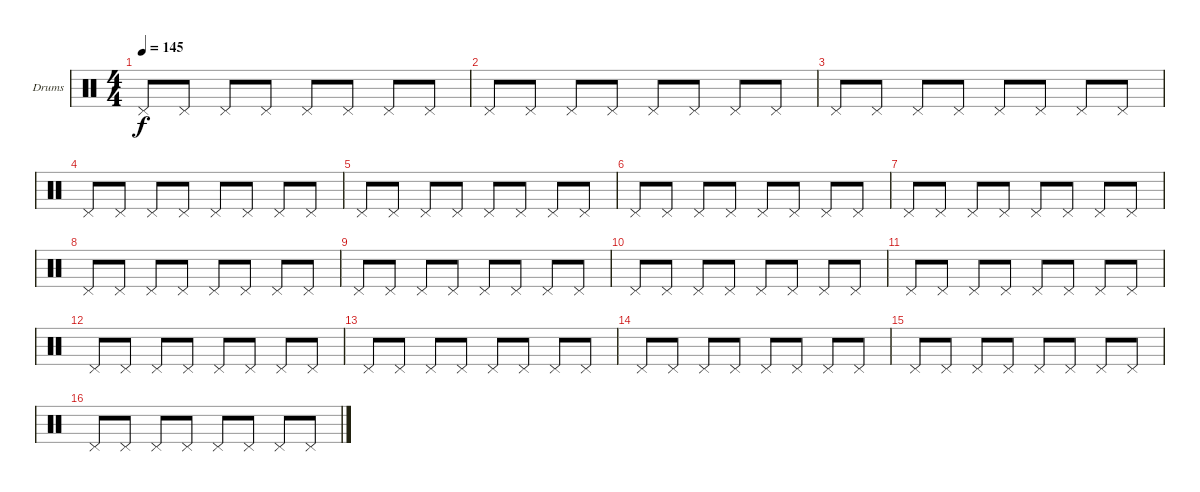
\defaultSystemsLayout 4
\bracketExtendMode groupsimilarinstruments
\firstSystemTrackNameOrientation horizontal
\otherSystemsTrackNameOrientation horizontal
\track ("Drumkit" "Drums") {instrument percussion}
\staff {score}
\articulation defaults
\ts (4 4)
\tempo 145
\clef neutral
\ks c "Pedal Hi-Hat (hit)".8{dy f} "Pedal Hi-Hat (hit)".8 "Pedal Hi-Hat (hit)".8 "Pedal Hi-Hat (hit)".8 "Pedal Hi-Hat (hit)".8 "Pedal Hi-Hat (hit)".8 "Pedal Hi-Hat (hit)".8 "Pedal Hi-Hat (hit)".8
|
"Pedal Hi-Hat (hit)".8 "Pedal Hi-Hat (hit)".8 "Pedal Hi-Hat (hit)".8 "Pedal Hi-Hat (hit)".8 "Pedal Hi-Hat (hit)".8 "Pedal Hi-Hat (hit)".8 "Pedal Hi-Hat (hit)".8 "Pedal Hi-Hat (hit)".8 |
"Pedal Hi-Hat (hit)".8 "Pedal Hi-Hat (hit)".8 "Pedal Hi-Hat (hit)".8 "Pedal Hi-Hat (hit)".8 "Pedal Hi-Hat (hit)".8 "Pedal Hi-Hat (hit)".8 "Pedal Hi-Hat (hit)".8 "Pedal Hi-Hat (hit)".8 |
"Pedal Hi-Hat (hit)".8 "Pedal Hi-Hat (hit)".8 "Pedal Hi-Hat (hit)".8 "Pedal Hi-Hat (hit)".8 "Pedal Hi-Hat (hit)".8 "Pedal Hi-Hat (hit)".8 "Pedal Hi-Hat (hit)".8 "Pedal Hi-Hat (hit)".8 |
"Pedal Hi-Hat (hit)".8 "Pedal Hi-Hat (hit)".8 "Pedal Hi-Hat (hit)".8 "Pedal Hi-Hat (hit)".8 "Pedal Hi-Hat (hit)".8 "Pedal Hi-Hat (hit)".8 "Pedal Hi-Hat (hit)".8 "Pedal Hi-Hat (hit)".8 |
"Pedal Hi-Hat (hit)".8 "Pedal Hi-Hat (hit)".8 "Pedal Hi-Hat (hit)".8 "Pedal Hi-Hat (hit)".8 "Pedal Hi-Hat (hit)".8 "Pedal Hi-Hat (hit)".8 "Pedal Hi-Hat (hit)".8 "Pedal Hi-Hat (hit)".8 |
"Pedal Hi-Hat (hit)".8 "Pedal Hi-Hat (hit)".8 "Pedal Hi-Hat (hit)".8 "Pedal Hi-Hat (hit)".8 "Pedal Hi-Hat (hit)".8 "Pedal Hi-Hat (hit)".8 "Pedal Hi-Hat (hit)".8 "Pedal Hi-Hat (hit)".8 |
"Pedal Hi-Hat (hit)".8 "Pedal Hi-Hat (hit)".8 "Pedal Hi-Hat (hit)".8 "Pedal Hi-Hat (hit)".8 "Pedal Hi-Hat (hit)".8 "Pedal Hi-Hat (hit)".8 "Pedal Hi-Hat (hit)".8 "Pedal Hi-Hat (hit)".8 |
"Pedal Hi-Hat (hit)".8 "Pedal Hi-Hat (hit)".8 "Pedal Hi-Hat (hit)".8 "Pedal Hi-Hat (hit)".8 "Pedal Hi-Hat (hit)".8 "Pedal Hi-Hat (hit)".8 "Pedal Hi-Hat (hit)".8 "Pedal Hi-Hat (hit)".8 |
"Pedal Hi-Hat (hit)".8 "Pedal Hi-Hat (hit)".8 "Pedal Hi-Hat (hit)".8 "Pedal Hi-Hat (hit)".8 "Pedal Hi-Hat (hit)".8 "Pedal Hi-Hat (hit)".8 "Pedal Hi-Hat (hit)".8 "Pedal Hi-Hat (hit)".8 |
"Pedal Hi-Hat (hit)".8 "Pedal Hi-Hat (hit)".8 "Pedal Hi-Hat (hit)".8 "Pedal Hi-Hat (hit)".8 "Pedal Hi-Hat (hit)".8 "Pedal Hi-Hat (hit)".8 "Pedal Hi-Hat (hit)".8 "Pedal Hi-Hat (hit)".8 |
"Pedal Hi-Hat (hit)".8 "Pedal Hi-Hat (hit)".8 "Pedal Hi-Hat (hit)".8 "Pedal Hi-Hat (hit)".8 "Pedal Hi-Hat (hit)".8 "Pedal Hi-Hat (hit)".8 "Pedal Hi-Hat (hit)".8 "Pedal Hi-Hat (hit)".8 |
"Pedal Hi-Hat (hit)".8 "Pedal Hi-Hat (hit)".8 "Pedal Hi-Hat (hit)".8 "Pedal Hi-Hat (hit)".8 "Pedal Hi-Hat (hit)".8 "Pedal Hi-Hat (hit)".8 "Pedal Hi-Hat (hit)".8 "Pedal Hi-Hat (hit)".8 |
"Pedal Hi-Hat (hit)".8 "Pedal Hi-Hat (hit)".8 "Pedal Hi-Hat (hit)".8 "Pedal Hi-Hat (hit)".8 "Pedal Hi-Hat (hit)".8 "Pedal Hi-Hat (hit)".8 "Pedal Hi-Hat (hit)".8 "Pedal Hi-Hat (hit)".8 |
"Pedal Hi-Hat (hit)".8 "Pedal Hi-Hat (hit)".8 "Pedal Hi-Hat (hit)".8 "Pedal Hi-Hat (hit)".8 "Pedal Hi-Hat (hit)".8 "Pedal Hi-Hat (hit)".8 "Pedal Hi-Hat (hit)".8 "Pedal Hi-Hat (hit)".8 |
"Pedal Hi-Hat (hit)".8 "Pedal Hi-Hat (hit)".8 "Pedal Hi-Hat (hit)".8 "Pedal Hi-Hat (hit)".8 "Pedal Hi-Hat (hit)".8 "Pedal Hi-Hat (hit)".8 "Pedal Hi-Hat (hit)".8 "Pedal Hi-Hat (hit)".8
